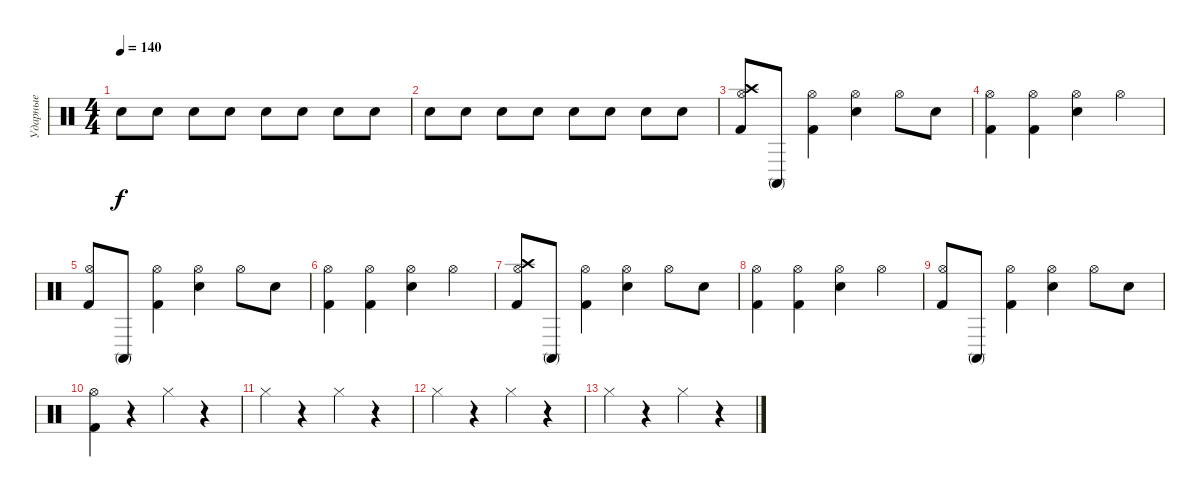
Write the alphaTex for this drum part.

\track ("Ударные" "Ударные") {instrument percussion}
\staff {score}
\articulation defaults
\ts (4 4)
\tempo 140
\clef neutral
\ks c "Electric Snare (hit)".8{dy f} "Electric Snare (hit)".8 "Electric Snare (hit)".8 "Electric Snare (hit)".8 "Electric Snare (hit)".8 "Electric Snare (hit)".8 "Electric Snare (hit)".8 "Electric Snare (hit)".8
|
"Electric Snare (hit)".8 "Electric Snare (hit)".8 "Electric Snare (hit)".8 "Electric Snare (hit)".8 "Electric Snare (hit)".8 "Electric Snare (hit)".8 "Electric Snare (hit)".8 "Electric Snare (hit)".8 |
("Crash high (hit)" "Hi-Hat (open)" "Kick (hit) 2").8 "Conga high (mute)".8 ("Hi-Hat (open)" "Kick (hit) 2").4 ("Hi-Hat (open)" "Electric Snare (hit)").4 "Hi-Hat (open)".8 "Electric Snare (hit)".8 |
("Hi-Hat (open)" "Kick (hit) 2").4 ("Hi-Hat (open)" "Kick (hit) 2").4 ("Hi-Hat (open)" "Electric Snare (hit)").4 "Hi-Hat (open)".4 |
("Hi-Hat (open)" "Kick (hit) 2").8 "Conga high (mute)".8 ("Hi-Hat (open)" "Kick (hit) 2").4 ("Hi-Hat (open)" "Electric Snare (hit)").4 "Hi-Hat (open)".8 "Electric Snare (hit)".8 |
("Hi-Hat (open)" "Kick (hit) 2").4 ("Hi-Hat (open)" "Kick (hit) 2").4 ("Hi-Hat (open)" "Electric Snare (hit)").4 "Hi-Hat (open)".4 |
("Crash high (hit)" "Hi-Hat (open)" "Kick (hit) 2").8 "Conga high (mute)".8 ("Hi-Hat (open)" "Kick (hit) 2").4 ("Hi-Hat (open)" "Electric Snare (hit)").4 "Hi-Hat (open)".8 "Electric Snare (hit)".8 |
("Hi-Hat (open)" "Kick (hit) 2").4 ("Hi-Hat (open)" "Kick (hit) 2").4 ("Hi-Hat (open)" "Electric Snare (hit)").4 "Hi-Hat (open)".4 |
("Hi-Hat (open)" "Kick (hit) 2").8 "Conga high (mute)".8 ("Hi-Hat (open)" "Kick (hit) 2").4 ("Hi-Hat (open)" "Electric Snare (hit)").4 "Hi-Hat (open)".8 "Electric Snare (hit)".8 |
("Hi-Hat (open)" "Kick (hit) 2").4 r.4 "Hi-Hat (closed)".4 r.4 |
"Hi-Hat (closed)".4 r.4 "Hi-Hat (closed)".4 r.4 |
"Hi-Hat (closed)".4 r.4 "Hi-Hat (closed)".4 r.4 |
"Hi-Hat (closed)".4 r.4 "Hi-Hat (closed)".4 r.4
